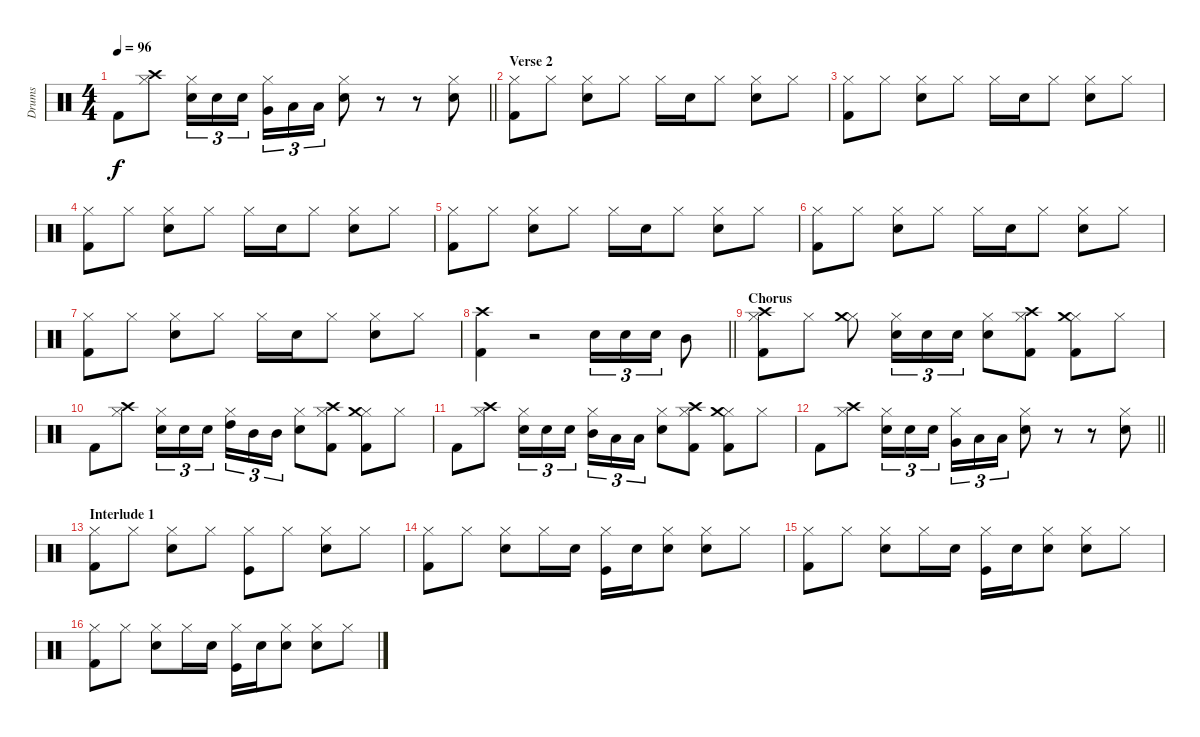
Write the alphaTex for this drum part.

\track ("Drums" "Drums") {instrument percussion}
\staff {score}
\articulation defaults
\ts (4 4)
\tempo 96
\clef neutral
\barLineRight lightlight
\ks c "Kick (hit) 2".8{dy f}
("Hi-Hat (closed)" "Crash high (hit)").8 ("Snare (hit) 2" "Hi-Hat (closed)").16{tu (3 2)} "Snare (hit) 2".16{tu (3 2)} "Snare (hit) 2".16{tu (3 2) beam splitsecondary} ("Hi-Hat (closed)" "Very Low Tom (hit)").16{tu (3 2)} "Low Floor Tom (hit)".16{tu (3 2)} "Low Floor Tom (hit)".16{tu (3 2)} ("Snare (hit) 2" "Hi-Hat (closed)").8 r.8 r.8 ("Snare (hit) 2" "Hi-Hat (closed)").8 |
\section ("" "Verse 2")
("Kick (hit) 2" "Hi-Hat (closed)").8 "Hi-Hat (closed)".8 ("Snare (hit) 2" "Hi-Hat (closed)").8 "Hi-Hat (closed)".8 "Hi-Hat (closed)".16 "Snare (hit) 2".16 "Hi-Hat (closed)".8 ("Snare (hit) 2" "Hi-Hat (closed)").8 "Hi-Hat (closed)".8 |
("Kick (hit) 2" "Hi-Hat (closed)").8 "Hi-Hat (closed)".8 ("Snare (hit) 2" "Hi-Hat (closed)").8 "Hi-Hat (closed)".8 "Hi-Hat (closed)".16 "Snare (hit) 2".16 "Hi-Hat (closed)".8 ("Snare (hit) 2" "Hi-Hat (closed)").8 "Hi-Hat (closed)".8 |
("Kick (hit) 2" "Hi-Hat (closed)").8 "Hi-Hat (closed)".8 ("Snare (hit) 2" "Hi-Hat (closed)").8 "Hi-Hat (closed)".8 "Hi-Hat (closed)".16 "Snare (hit) 2".16 "Hi-Hat (closed)".8 ("Snare (hit) 2" "Hi-Hat (closed)").8 "Hi-Hat (closed)".8 |
("Kick (hit) 2" "Hi-Hat (closed)").8 "Hi-Hat (closed)".8 ("Snare (hit) 2" "Hi-Hat (closed)").8 "Hi-Hat (closed)".8 "Hi-Hat (closed)".16 "Snare (hit) 2".16 "Hi-Hat (closed)".8 ("Snare (hit) 2" "Hi-Hat (closed)").8 "Hi-Hat (closed)".8 |
("Kick (hit) 2" "Hi-Hat (closed)").8 "Hi-Hat (closed)".8 ("Snare (hit) 2" "Hi-Hat (closed)").8 "Hi-Hat (closed)".8 "Hi-Hat (closed)".16 "Snare (hit) 2".16 "Hi-Hat (closed)".8 ("Snare (hit) 2" "Hi-Hat (closed)").8 "Hi-Hat (closed)".8 |
("Kick (hit) 2" "Hi-Hat (closed)").8 "Hi-Hat (closed)".8 ("Snare (hit) 2" "Hi-Hat (closed)").8 "Hi-Hat (closed)".8 "Hi-Hat (closed)".16 "Snare (hit) 2".16 "Hi-Hat (closed)".8 ("Snare (hit) 2" "Hi-Hat (closed)").8 "Hi-Hat (closed)".8 |
\barLineRight lightlight
("Kick (hit) 2" "Crash high (hit)").4 r.2 "Snare (hit) 2".16{tu (3 2)} "Snare (hit) 2".16{tu (3 2)} "Snare (hit) 2".16{tu (3 2)} "Mid Tom (hit)".8 |
\section ("" "Chorus")
("Kick (hit) 2" "Hi-Hat (closed)" "Crash high (hit)").8 "Hi-Hat (closed)".8 ("Hi-Hat (closed)" "Crash medium (hit)").8 ("Snare (hit) 2" "Hi-Hat (closed)").16{tu (3 2)} "Snare (hit) 2".16{tu (3 2)} "Snare (hit) 2".16{tu (3 2)} ("Snare (hit) 2" "Hi-Hat (closed)").8 ("Kick (hit) 2" "Hi-Hat (closed)" "Crash high (hit)").8 ("Kick (hit) 2" "Hi-Hat (closed)" "Crash medium (hit)").8 "Hi-Hat (closed)".8 |
"Kick (hit) 2".8 ("Hi-Hat (closed)" "Crash high (hit)").8 ("Snare (hit) 2" "Hi-Hat (closed)").16{tu (3 2)} "Snare (hit) 2".16{tu (3 2)} "Snare (hit) 2".16{tu (3 2) beam splitsecondary} ("Hi-Hat (closed)" "High Tom (hit)").16{tu (3 2)} "Mid Tom (hit)".16{tu (3 2)} "Mid Tom (hit)".16{tu (3 2)} ("Snare (hit) 2" "Hi-Hat (closed)").8 ("Kick (hit) 2" "Hi-Hat (closed)" "Crash high (hit)").8 ("Kick (hit) 2" "Hi-Hat (closed)" "Crash medium (hit)").8 "Hi-Hat (closed)".8 |
"Kick (hit) 2".8 ("Hi-Hat (closed)" "Crash high (hit)").8 ("Snare (hit) 2" "Hi-Hat (closed)").16{tu (3 2)} "Snare (hit) 2".16{tu (3 2)} "Snare (hit) 2".16{tu (3 2) beam splitsecondary} ("Hi-Hat (closed)" "Mid Tom (hit)").16{tu (3 2)} "Low Tom (hit)".16{tu (3 2)} "Low Tom (hit)".16{tu (3 2)} ("Snare (hit) 2" "Hi-Hat (closed)").8 ("Kick (hit) 2" "Hi-Hat (closed)" "Crash high (hit)").8 ("Kick (hit) 2" "Hi-Hat (closed)" "Crash medium (hit)").8 "Hi-Hat (closed)".8 |
\barLineRight lightlight "Kick (hit) 2".8
("Hi-Hat (closed)" "Crash high (hit)").8 ("Snare (hit) 2" "Hi-Hat (closed)").16{tu (3 2)} "Snare (hit) 2".16{tu (3 2)} "Snare (hit) 2".16{tu (3 2) beam splitsecondary} ("Hi-Hat (closed)" "Very Low Tom (hit)").16{tu (3 2)} "Low Floor Tom (hit)".16{tu (3 2)} "Low Floor Tom (hit)".16{tu (3 2)} ("Snare (hit) 2" "Hi-Hat (closed)").8 r.8 r.8 ("Snare (hit) 2" "Hi-Hat (closed)").8 |
\section ("" "Interlude 1")
("Kick (hit) 2" "Hi-Hat (closed)").8 "Hi-Hat (closed)".8 ("Snare (hit) 2" "Hi-Hat (closed)").8 "Hi-Hat (closed)".8 ("Kick (hit)" "Hi-Hat (closed)").8 "Hi-Hat (closed)".8 ("Snare (hit) 2" "Hi-Hat (closed)").8 "Hi-Hat (closed)".8 |
("Kick (hit) 2" "Hi-Hat (closed)").8 "Hi-Hat (closed)".8 ("Snare (hit) 2" "Hi-Hat (closed)").8 "Hi-Hat (closed)".16 "Snare (hit) 2".16 ("Kick (hit)" "Hi-Hat (closed)").16 "Snare (hit) 2".16 ("Snare (hit) 2" "Hi-Hat (closed)").8 ("Snare (hit) 2" "Hi-Hat (closed)").8 "Hi-Hat (closed)".8 |
("Kick (hit) 2" "Hi-Hat (closed)").8 "Hi-Hat (closed)".8 ("Snare (hit) 2" "Hi-Hat (closed)").8 "Hi-Hat (closed)".16 "Snare (hit) 2".16 ("Kick (hit)" "Hi-Hat (closed)").16 "Snare (hit) 2".16 ("Snare (hit) 2" "Hi-Hat (closed)").8 ("Snare (hit) 2" "Hi-Hat (closed)").8 "Hi-Hat (closed)".8 |
("Kick (hit) 2" "Hi-Hat (closed)").8 "Hi-Hat (closed)".8 ("Snare (hit) 2" "Hi-Hat (closed)").8 "Hi-Hat (closed)".16 "Snare (hit) 2".16 ("Kick (hit)" "Hi-Hat (closed)").16 "Snare (hit) 2".16 ("Snare (hit) 2" "Hi-Hat (closed)").8 ("Snare (hit) 2" "Hi-Hat (closed)").8 "Hi-Hat (closed)".8
